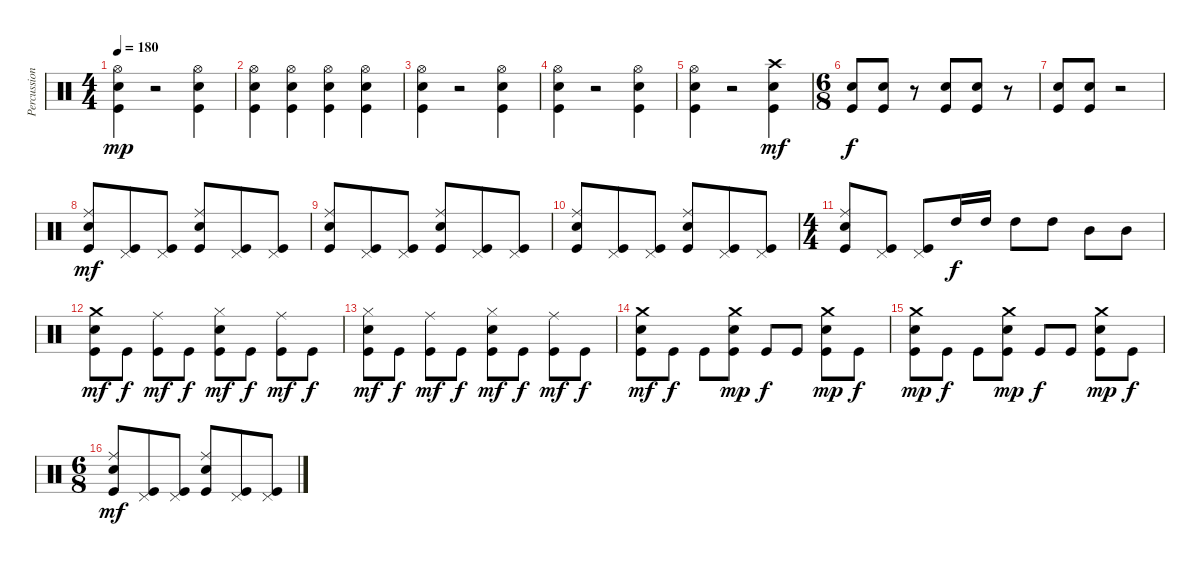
\track ("Percussion" "Percussion") {instrument percussion}
\staff {score}
\articulation defaults
\ts (4 4)
\tempo 180
\clef neutral
\ks c
("Hi-Hat (open)" "Snare (hit) 2" "Kick (hit)").4{dy mp} r.2 ("Hi-Hat (open)" "Snare (hit) 2" "Kick (hit)").4 |
("Hi-Hat (open)" "Snare (hit) 2" "Kick (hit)").4 ("Hi-Hat (open)" "Snare (hit) 2" "Kick (hit)").4 ("Hi-Hat (open)" "Snare (hit) 2" "Kick (hit)").4 ("Hi-Hat (open)" "Snare (hit) 2" "Kick (hit)").4 |
("Hi-Hat (open)" "Snare (hit) 2" "Kick (hit)").4 r.2 ("Hi-Hat (open)" "Snare (hit) 2" "Kick (hit)").4 |
("Hi-Hat (open)" "Snare (hit) 2" "Kick (hit)").4 r.2 ("Hi-Hat (open)" "Snare (hit) 2" "Kick (hit)").4 |
("Hi-Hat (open)" "Snare (hit) 2" "Kick (hit)").4 r.2 ("Crash high (hit)" "Snare (hit) 2" "Kick (hit)").4{dy mf} |
\ts (6 8)
("Snare (hit) 2" "Kick (hit)").8{dy f} ("Snare (hit) 2" "Kick (hit)").8 r.8 ("Snare (hit) 2" "Kick (hit)").8 ("Snare (hit) 2" "Kick (hit)").8 r.8 |
("Snare (hit) 2" "Kick (hit)").8 ("Snare (hit) 2" "Kick (hit)").8 r.2 |
("Ride (middle)" "Snare (hit) 2" "Kick (hit)").8{dy mf} ("Pedal Hi-Hat (hit)" "Kick (hit)").8 ("Pedal Hi-Hat (hit)" "Kick (hit)").8 ("Ride (middle)" "Snare (hit) 2" "Kick (hit)").8 ("Pedal Hi-Hat (hit)" "Kick (hit)").8 ("Pedal Hi-Hat (hit)" "Kick (hit)").8 |
("Ride (middle)" "Snare (hit) 2" "Kick (hit)").8 ("Pedal Hi-Hat (hit)" "Kick (hit)").8 ("Pedal Hi-Hat (hit)" "Kick (hit)").8 ("Ride (middle)" "Snare (hit) 2" "Kick (hit)").8 ("Pedal Hi-Hat (hit)" "Kick (hit)").8 ("Pedal Hi-Hat (hit)" "Kick (hit)").8 |
("Ride (middle)" "Snare (hit) 2" "Kick (hit)").8 ("Pedal Hi-Hat (hit)" "Kick (hit)").8 ("Pedal Hi-Hat (hit)" "Kick (hit)").8 ("Ride (middle)" "Snare (hit) 2" "Kick (hit)").8 ("Pedal Hi-Hat (hit)" "Kick (hit)").8 ("Pedal Hi-Hat (hit)" "Kick (hit)").8 |
\ts (4 4)
("Ride (middle)" "Snare (hit) 2" "Kick (hit)").8 ("Pedal Hi-Hat (hit)" "Kick (hit)").8 ("Pedal Hi-Hat (hit)" "Kick (hit)").8 "High Tom (hit)".16{dy f} "High Tom (hit)".16 "High Tom (hit)".8 "High Tom (hit)".8 "Mid Tom (hit)".8 "Mid Tom (hit)".8 |
("Crash medium (hit)" "Snare (hit) 2" "Kick (hit)").8{dy mf} "Kick (hit)".8{dy f} ("Ride (middle)" "Kick (hit)").8{dy mf} "Kick (hit)".8{dy f} ("Hi-Hat (closed)" "Snare (hit) 2" "Kick (hit)").8{dy mf} "Kick (hit)".8{dy f} ("Ride (middle)" "Kick (hit)").8{dy mf} "Kick (hit)".8{dy f} |
("Hi-Hat (closed)" "Snare (hit) 2" "Kick (hit)").8{dy mf} "Kick (hit)".8{dy f} ("Ride (middle)" "Kick (hit)").8{dy mf} "Kick (hit)".8{dy f} ("Hi-Hat (closed)" "Snare (hit) 2" "Kick (hit)").8{dy mf} "Kick (hit)".8{dy f} ("Ride (middle)" "Kick (hit)").8{dy mf} "Kick (hit)".8{dy f} |
("Crash medium (hit)" "Snare (hit) 2" "Kick (hit)").8{dy mf} "Kick (hit)".8{dy f} "Kick (hit)".8 ("Crash medium (hit)" "Snare (hit) 2" "Kick (hit)").8{dy mp} "Kick (hit)".8{dy f} "Kick (hit)".8 ("Crash medium (hit)" "Snare (hit) 2" "Kick (hit)").8{dy mp} "Kick (hit)".8{dy f} |
("Crash medium (hit)" "Snare (hit) 2" "Kick (hit)").8{dy mp} "Kick (hit)".8{dy f} "Kick (hit)".8 ("Crash medium (hit)" "Snare (hit) 2" "Kick (hit)").8{dy mp} "Kick (hit)".8{dy f} "Kick (hit)".8 ("Crash medium (hit)" "Snare (hit) 2" "Kick (hit)").8{dy mp} "Kick (hit)".8{dy f} |
\ts (6 8)
("Ride (middle)" "Snare (hit) 2" "Kick (hit)").8{dy mf} ("Pedal Hi-Hat (hit)" "Kick (hit)").8 ("Pedal Hi-Hat (hit)" "Kick (hit)").8 ("Ride (middle)" "Snare (hit) 2" "Kick (hit)").8 ("Pedal Hi-Hat (hit)" "Kick (hit)").8 ("Pedal Hi-Hat (hit)" "Kick (hit)").8
